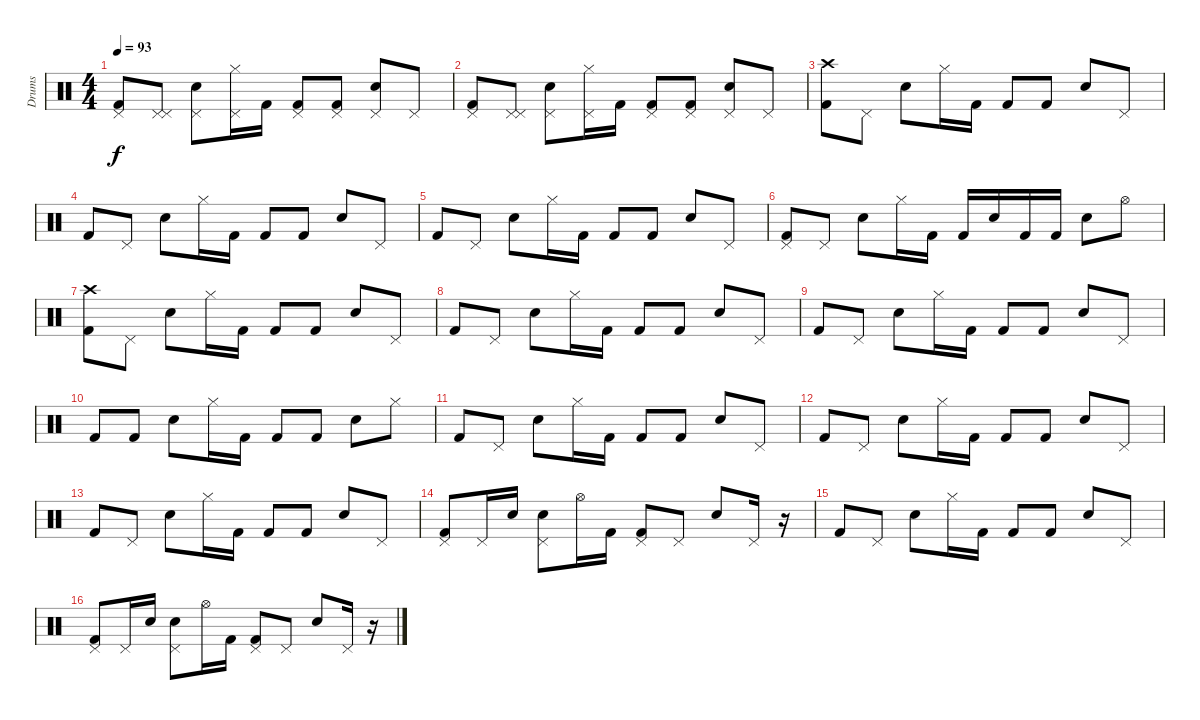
\track ("Drums" "Drums") {instrument percussion}
\staff {score}
\articulation defaults
\ts (4 4)
\tempo 93
\clef neutral
\ks c
("Pedal Hi-Hat (hit)" "Kick (hit) 2").8{dy f} ("Pedal Hi-Hat (hit)" "Pedal Hi-Hat (hit)").8 ("Electric Snare (hit)" "Pedal Hi-Hat (hit)").8 ("Hi-Hat (closed)" "Pedal Hi-Hat (hit)").16 "Kick (hit) 2".16 ("Pedal Hi-Hat (hit)" "Kick (hit) 2").8 ("Pedal Hi-Hat (hit)" "Kick (hit) 2").8 ("Electric Snare (hit)" "Pedal Hi-Hat (hit)").8 "Pedal Hi-Hat (hit)".8 |
("Pedal Hi-Hat (hit)" "Kick (hit) 2").8 ("Pedal Hi-Hat (hit)" "Pedal Hi-Hat (hit)").8 ("Electric Snare (hit)" "Pedal Hi-Hat (hit)").8 ("Hi-Hat (closed)" "Pedal Hi-Hat (hit)").16 "Kick (hit) 2".16 ("Pedal Hi-Hat (hit)" "Kick (hit) 2").8 ("Pedal Hi-Hat (hit)" "Kick (hit) 2").8 ("Electric Snare (hit)" "Pedal Hi-Hat (hit)").8 "Pedal Hi-Hat (hit)".8 |
("Crash high (hit)" "Kick (hit) 2").8 "Pedal Hi-Hat (hit)".8 "Electric Snare (hit)".8 "Hi-Hat (closed)".16 "Kick (hit) 2".16 "Kick (hit) 2".8 "Kick (hit) 2".8 "Electric Snare (hit)".8 "Pedal Hi-Hat (hit)".8 |
"Kick (hit) 2".8 "Pedal Hi-Hat (hit)".8 "Electric Snare (hit)".8 "Hi-Hat (closed)".16 "Kick (hit) 2".16 "Kick (hit) 2".8 "Kick (hit) 2".8 "Electric Snare (hit)".8 "Pedal Hi-Hat (hit)".8 |
"Kick (hit) 2".8 "Pedal Hi-Hat (hit)".8 "Electric Snare (hit)".8 "Hi-Hat (closed)".16 "Kick (hit) 2".16 "Kick (hit) 2".8 "Kick (hit) 2".8 "Electric Snare (hit)".8 "Pedal Hi-Hat (hit)".8 |
("Pedal Hi-Hat (hit)" "Kick (hit) 2").8 "Pedal Hi-Hat (hit)".8 "Electric Snare (hit)".8 "Hi-Hat (closed)".16 "Kick (hit) 2".16 "Kick (hit) 2".16 "Electric Snare (hit)".16 "Kick (hit) 2".16 "Kick (hit) 2".16 "Electric Snare (hit)".8 "Hi-Hat (open)".8 |
("Crash high (hit)" "Kick (hit) 2").8 "Pedal Hi-Hat (hit)".8 "Electric Snare (hit)".8 "Hi-Hat (closed)".16 "Kick (hit) 2".16 "Kick (hit) 2".8 "Kick (hit) 2".8 "Electric Snare (hit)".8 "Pedal Hi-Hat (hit)".8 |
"Kick (hit) 2".8 "Pedal Hi-Hat (hit)".8 "Electric Snare (hit)".8 "Hi-Hat (closed)".16 "Kick (hit) 2".16 "Kick (hit) 2".8 "Kick (hit) 2".8 "Electric Snare (hit)".8 "Pedal Hi-Hat (hit)".8 |
"Kick (hit) 2".8 "Pedal Hi-Hat (hit)".8 "Electric Snare (hit)".8 "Hi-Hat (closed)".16 "Kick (hit) 2".16 "Kick (hit) 2".8 "Kick (hit) 2".8 "Electric Snare (hit)".8 "Pedal Hi-Hat (hit)".8 |
"Kick (hit) 2".8 "Kick (hit) 2".8 "Electric Snare (hit)".8 "Hi-Hat (closed)".16 "Kick (hit) 2".16 "Kick (hit) 2".8 "Kick (hit) 2".8 "Electric Snare (hit)".8 "Hi-Hat (closed)".8 |
"Kick (hit) 2".8 "Pedal Hi-Hat (hit)".8 "Electric Snare (hit)".8 "Hi-Hat (closed)".16 "Kick (hit) 2".16 "Kick (hit) 2".8 "Kick (hit) 2".8 "Electric Snare (hit)".8 "Pedal Hi-Hat (hit)".8 |
"Kick (hit) 2".8 "Pedal Hi-Hat (hit)".8 "Electric Snare (hit)".8 "Hi-Hat (closed)".16 "Kick (hit) 2".16 "Kick (hit) 2".8 "Kick (hit) 2".8 "Electric Snare (hit)".8 "Pedal Hi-Hat (hit)".8 |
"Kick (hit) 2".8 "Pedal Hi-Hat (hit)".8 "Electric Snare (hit)".8 "Hi-Hat (closed)".16 "Kick (hit) 2".16 "Kick (hit) 2".8 "Kick (hit) 2".8 "Electric Snare (hit)".8 "Pedal Hi-Hat (hit)".8 |
("Pedal Hi-Hat (hit)" "Kick (hit) 2").8 "Pedal Hi-Hat (hit)".16 "Electric Snare (hit)".16 ("Electric Snare (hit)" "Pedal Hi-Hat (hit)").8 "Hi-Hat (open)".16 "Kick (hit) 2".16 ("Pedal Hi-Hat (hit)" "Kick (hit) 2").8 "Pedal Hi-Hat (hit)".8 "Electric Snare (hit)".8 "Pedal Hi-Hat (hit)".16 r.16 |
"Kick (hit) 2".8 "Pedal Hi-Hat (hit)".8 "Electric Snare (hit)".8 "Hi-Hat (closed)".16 "Kick (hit) 2".16 "Kick (hit) 2".8 "Kick (hit) 2".8 "Electric Snare (hit)".8 "Pedal Hi-Hat (hit)".8 |
("Pedal Hi-Hat (hit)" "Kick (hit) 2").8 "Pedal Hi-Hat (hit)".16 "Electric Snare (hit)".16 ("Electric Snare (hit)" "Pedal Hi-Hat (hit)").8 "Hi-Hat (open)".16 "Kick (hit) 2".16 ("Pedal Hi-Hat (hit)" "Kick (hit) 2").8 "Pedal Hi-Hat (hit)".8 "Electric Snare (hit)".8 "Pedal Hi-Hat (hit)".16 r.16
